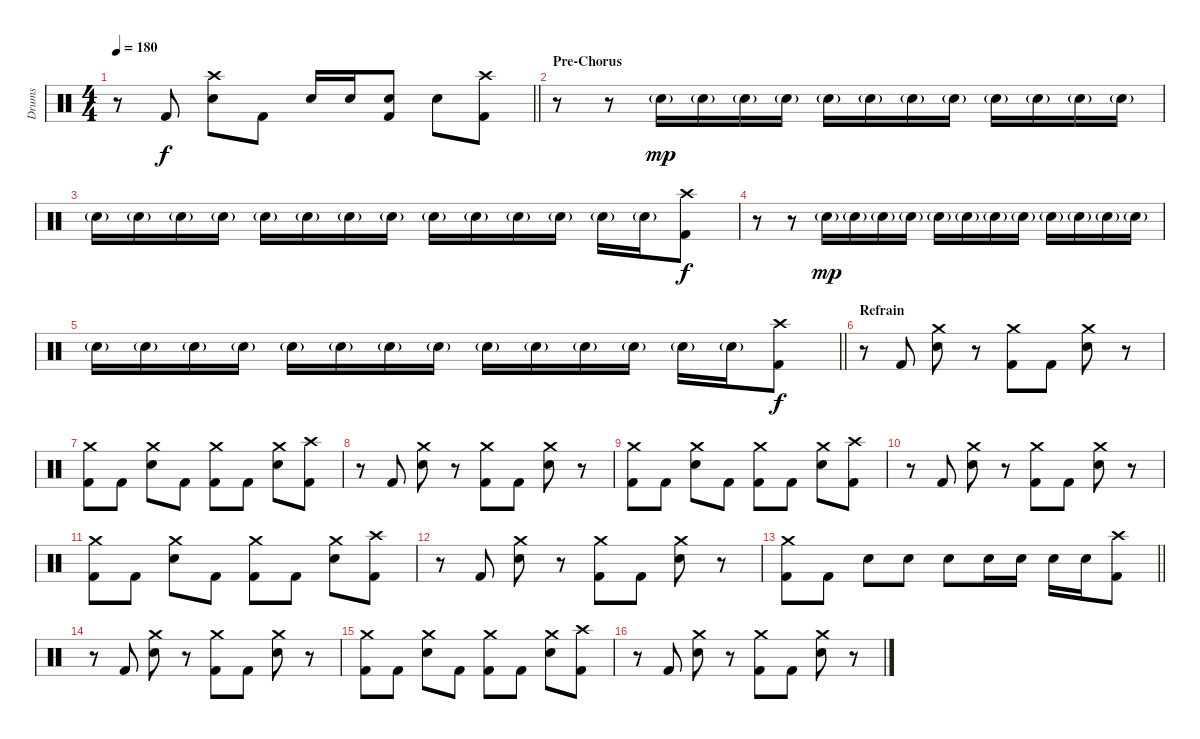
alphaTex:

\track ("Drums" "Drums") {instrument percussion}
\staff {score}
\articulation defaults
\ts (4 4)
\tempo 180
\clef neutral
\barLineRight lightlight
\ks c
r.8{dy f} "Kick (hit) 2".8 ("Crash high (hit)" "Snare (hit) 2").8 "Kick (hit) 2".8 "Snare (hit) 2".16 "Snare (hit) 2".16 ("Snare (hit) 2" "Kick (hit) 2").8 "Snare (hit) 2".8 ("Crash high (hit)" "Kick (hit) 2").8 |
\section ("" "Pre-Chorus")
r.8 r.8 "Snare (hit) 2"{g}.16{dy mp} "Snare (hit) 2"{g}.16 "Snare (hit) 2"{g}.16 "Snare (hit) 2"{g}.16 "Snare (hit) 2"{g}.16 "Snare (hit) 2"{g}.16 "Snare (hit) 2"{g}.16 "Snare (hit) 2"{g}.16 "Snare (hit) 2"{g}.16 "Snare (hit) 2"{g}.16 "Snare (hit) 2"{g}.16 "Snare (hit) 2"{g}.16 |
"Snare (hit) 2"{g}.16 "Snare (hit) 2"{g}.16 "Snare (hit) 2"{g}.16 "Snare (hit) 2"{g}.16 "Snare (hit) 2"{g}.16 "Snare (hit) 2"{g}.16 "Snare (hit) 2"{g}.16 "Snare (hit) 2"{g}.16 "Snare (hit) 2"{g}.16 "Snare (hit) 2"{g}.16 "Snare (hit) 2"{g}.16 "Snare (hit) 2"{g}.16 "Snare (hit) 2"{g}.16 "Snare (hit) 2"{g}.16 ("Crash high (hit)" "Kick (hit) 2").8{dy f} |
r.8 r.8 "Snare (hit) 2"{g}.16{dy mp} "Snare (hit) 2"{g}.16 "Snare (hit) 2"{g}.16 "Snare (hit) 2"{g}.16 "Snare (hit) 2"{g}.16 "Snare (hit) 2"{g}.16 "Snare (hit) 2"{g}.16 "Snare (hit) 2"{g}.16 "Snare (hit) 2"{g}.16 "Snare (hit) 2"{g}.16 "Snare (hit) 2"{g}.16 "Snare (hit) 2"{g}.16 |
\barLineRight lightlight "Snare (hit) 2"{g}.16 "Snare (hit) 2"{g}.16 "Snare (hit) 2"{g}.16 "Snare (hit) 2"{g}.16 "Snare (hit) 2"{g}.16 "Snare (hit) 2"{g}.16 "Snare (hit) 2"{g}.16 "Snare (hit) 2"{g}.16 "Snare (hit) 2"{g}.16 "Snare (hit) 2"{g}.16 "Snare (hit) 2"{g}.16 "Snare (hit) 2"{g}.16 "Snare (hit) 2"{g}.16 "Snare (hit) 2"{g}.16
("Crash high (hit)" "Kick (hit) 2").8{dy f} |
\section ("" "Refrain")
r.8 "Kick (hit) 2".8 ("Crash medium (hit)" "Snare (hit) 2").8 r.8 ("Crash medium (hit)" "Kick (hit) 2").8 "Kick (hit) 2".8 ("Crash medium (hit)" "Snare (hit) 2").8 r.8 |
("Crash medium (hit)" "Kick (hit) 2").8 "Kick (hit) 2".8 ("Crash medium (hit)" "Snare (hit) 2").8 "Kick (hit) 2".8 ("Crash medium (hit)" "Kick (hit) 2").8 "Kick (hit) 2".8 ("Crash medium (hit)" "Snare (hit) 2").8 ("Crash high (hit)" "Kick (hit) 2").8 |
r.8 "Kick (hit) 2".8 ("Crash medium (hit)" "Snare (hit) 2").8 r.8 ("Crash medium (hit)" "Kick (hit) 2").8 "Kick (hit) 2".8 ("Crash medium (hit)" "Snare (hit) 2").8 r.8 |
("Crash medium (hit)" "Kick (hit) 2").8 "Kick (hit) 2".8 ("Crash medium (hit)" "Snare (hit) 2").8 "Kick (hit) 2".8 ("Crash medium (hit)" "Kick (hit) 2").8 "Kick (hit) 2".8 ("Crash medium (hit)" "Snare (hit) 2").8 ("Crash high (hit)" "Kick (hit) 2").8 |
r.8 "Kick (hit) 2".8 ("Crash medium (hit)" "Snare (hit) 2").8 r.8 ("Crash medium (hit)" "Kick (hit) 2").8 "Kick (hit) 2".8 ("Crash medium (hit)" "Snare (hit) 2").8 r.8 |
("Crash medium (hit)" "Kick (hit) 2").8 "Kick (hit) 2".8 ("Crash medium (hit)" "Snare (hit) 2").8 "Kick (hit) 2".8 ("Crash medium (hit)" "Kick (hit) 2").8 "Kick (hit) 2".8 ("Crash medium (hit)" "Snare (hit) 2").8 ("Crash high (hit)" "Kick (hit) 2").8 |
r.8 "Kick (hit) 2".8 ("Crash medium (hit)" "Snare (hit) 2").8 r.8 ("Crash medium (hit)" "Kick (hit) 2").8 "Kick (hit) 2".8 ("Crash medium (hit)" "Snare (hit) 2").8 r.8 |
\barLineRight lightlight
("Crash medium (hit)" "Kick (hit) 2").8 "Kick (hit) 2".8 "Snare (hit) 2".8 "Snare (hit) 2".8 "Snare (hit) 2".8 "Snare (hit) 2".16 "Snare (hit) 2".16 "Snare (hit) 2".16 "Snare (hit) 2".16 ("Crash high (hit)" "Kick (hit) 2").8 |
r.8 "Kick (hit) 2".8 ("Crash medium (hit)" "Snare (hit) 2").8 r.8 ("Crash medium (hit)" "Kick (hit) 2").8 "Kick (hit) 2".8 ("Crash medium (hit)" "Snare (hit) 2").8 r.8 |
("Crash medium (hit)" "Kick (hit) 2").8 "Kick (hit) 2".8 ("Crash medium (hit)" "Snare (hit) 2").8 "Kick (hit) 2".8 ("Crash medium (hit)" "Kick (hit) 2").8 "Kick (hit) 2".8 ("Crash medium (hit)" "Snare (hit) 2").8 ("Crash high (hit)" "Kick (hit) 2").8 |
r.8 "Kick (hit) 2".8 ("Crash medium (hit)" "Snare (hit) 2").8 r.8 ("Crash medium (hit)" "Kick (hit) 2").8 "Kick (hit) 2".8 ("Crash medium (hit)" "Snare (hit) 2").8 r.8
